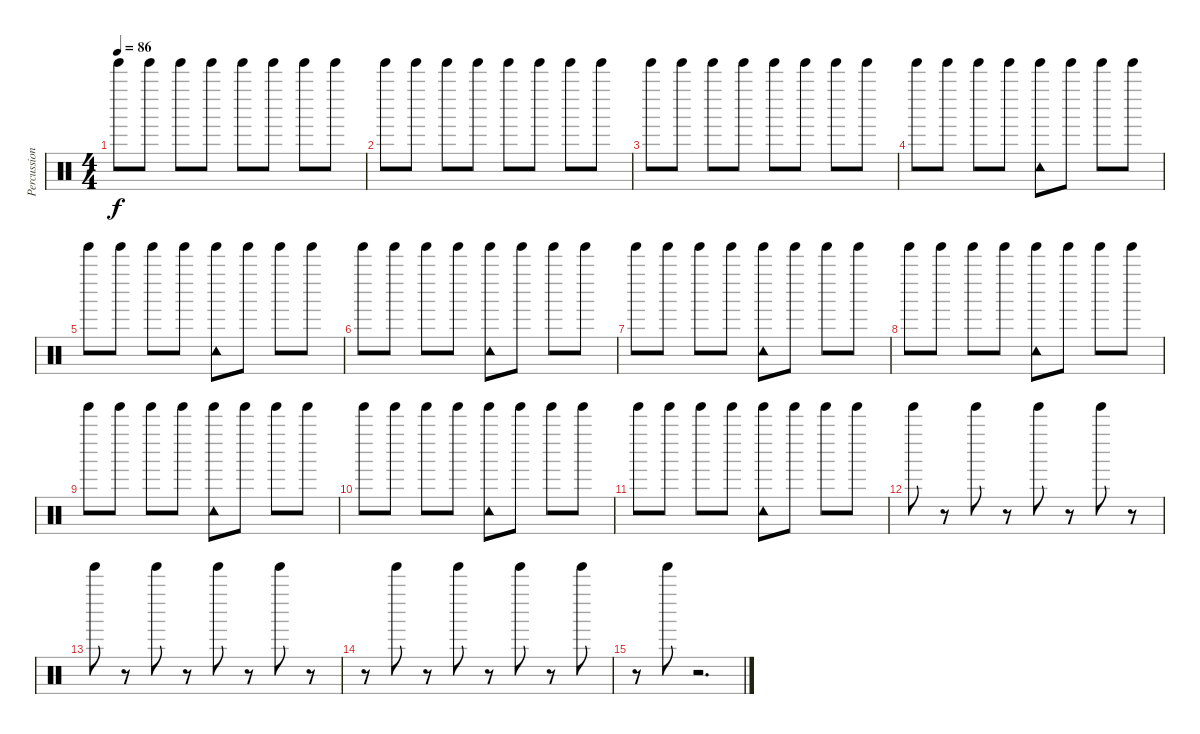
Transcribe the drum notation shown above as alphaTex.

\track ("Percussion" "Percussion") {instrument percussion}
\staff {score}
\articulation defaults
\ts (4 4)
\tempo 86
\clef neutral
\ks c "Tinkle Bell (hit)".8{dy f} "Tinkle Bell (hit)".8 "Tinkle Bell (hit)".8 "Tinkle Bell (hit)".8 "Tinkle Bell (hit)".8 "Tinkle Bell (hit)".8 "Tinkle Bell (hit)".8 "Tinkle Bell (hit)".8
|
"Tinkle Bell (hit)".8 "Tinkle Bell (hit)".8 "Tinkle Bell (hit)".8 "Tinkle Bell (hit)".8 "Tinkle Bell (hit)".8 "Tinkle Bell (hit)".8 "Tinkle Bell (hit)".8 "Tinkle Bell (hit)".8 |
"Tinkle Bell (hit)".8 "Tinkle Bell (hit)".8 "Tinkle Bell (hit)".8 "Tinkle Bell (hit)".8 "Tinkle Bell (hit)".8 "Tinkle Bell (hit)".8 "Tinkle Bell (hit)".8 "Tinkle Bell (hit)".8 |
"Tinkle Bell (hit)".8 "Tinkle Bell (hit)".8 "Tinkle Bell (hit)".8 "Tinkle Bell (hit)".8 ("Tambourine (hit)" "Tinkle Bell (hit)").8 "Tinkle Bell (hit)".8 "Tinkle Bell (hit)".8 "Tinkle Bell (hit)".8 |
"Tinkle Bell (hit)".8 "Tinkle Bell (hit)".8 "Tinkle Bell (hit)".8 "Tinkle Bell (hit)".8 ("Tinkle Bell (hit)" "Tambourine (hit)").8 "Tinkle Bell (hit)".8 "Tinkle Bell (hit)".8 "Tinkle Bell (hit)".8 |
"Tinkle Bell (hit)".8 "Tinkle Bell (hit)".8 "Tinkle Bell (hit)".8 "Tinkle Bell (hit)".8 ("Tinkle Bell (hit)" "Tambourine (hit)").8 "Tinkle Bell (hit)".8 "Tinkle Bell (hit)".8 "Tinkle Bell (hit)".8 |
"Tinkle Bell (hit)".8 "Tinkle Bell (hit)".8 "Tinkle Bell (hit)".8 "Tinkle Bell (hit)".8 ("Tinkle Bell (hit)" "Tambourine (hit)").8 "Tinkle Bell (hit)".8 "Tinkle Bell (hit)".8 "Tinkle Bell (hit)".8 |
"Tinkle Bell (hit)".8 "Tinkle Bell (hit)".8 "Tinkle Bell (hit)".8 "Tinkle Bell (hit)".8 ("Tambourine (hit)" "Tinkle Bell (hit)").8 "Tinkle Bell (hit)".8 "Tinkle Bell (hit)".8 "Tinkle Bell (hit)".8 |
"Tinkle Bell (hit)".8 "Tinkle Bell (hit)".8 "Tinkle Bell (hit)".8 "Tinkle Bell (hit)".8 ("Tinkle Bell (hit)" "Tambourine (hit)").8 "Tinkle Bell (hit)".8 "Tinkle Bell (hit)".8 "Tinkle Bell (hit)".8 |
"Tinkle Bell (hit)".8 "Tinkle Bell (hit)".8 "Tinkle Bell (hit)".8 "Tinkle Bell (hit)".8 ("Tinkle Bell (hit)" "Tambourine (hit)").8 "Tinkle Bell (hit)".8 "Tinkle Bell (hit)".8 "Tinkle Bell (hit)".8 |
"Tinkle Bell (hit)".8 "Tinkle Bell (hit)".8 "Tinkle Bell (hit)".8 "Tinkle Bell (hit)".8 ("Tinkle Bell (hit)" "Tambourine (hit)").8 "Tinkle Bell (hit)".8 "Tinkle Bell (hit)".8 "Tinkle Bell (hit)".8 |
"Tinkle Bell (hit)".8 r.8 "Tinkle Bell (hit)".8 r.8 "Tinkle Bell (hit)".8 r.8 "Tinkle Bell (hit)".8 r.8 |
"Tinkle Bell (hit)".8 r.8 "Tinkle Bell (hit)".8 r.8 "Tinkle Bell (hit)".8 r.8 "Tinkle Bell (hit)".8 r.8 |
r.8 "Tinkle Bell (hit)".8 r.8 "Tinkle Bell (hit)".8 r.8 "Tinkle Bell (hit)".8 r.8 "Tinkle Bell (hit)".8 |
r.8 "Tinkle Bell (hit)".8 r.2{d}
